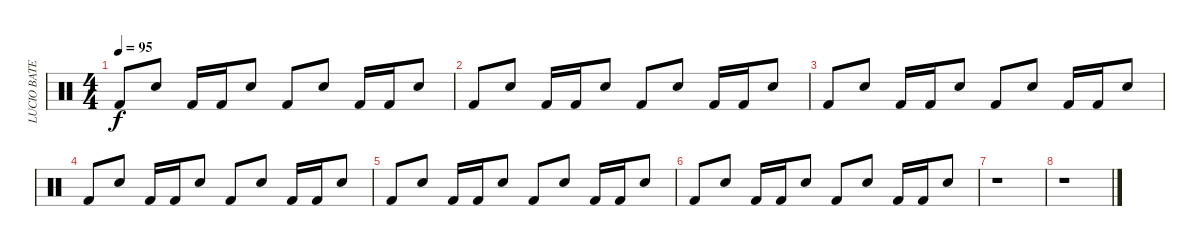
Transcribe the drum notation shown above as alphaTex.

\track ("LUCIO BATERIA" "LUCIO BATE") {instrument percussion}
\staff {score}
\articulation defaults
\ts (4 4)
\tempo 95
\clef neutral
\ks c "Kick (hit) 2".8{dy f} "Electric Snare (hit)".8 "Kick (hit) 2".16 "Kick (hit) 2".16 "Electric Snare (hit)".8 "Kick (hit) 2".8 "Electric Snare (hit)".8 "Kick (hit) 2".16 "Kick (hit) 2".16 "Electric Snare (hit)".8
|
"Kick (hit) 2".8 "Electric Snare (hit)".8 "Kick (hit) 2".16 "Kick (hit) 2".16 "Electric Snare (hit)".8 "Kick (hit) 2".8 "Electric Snare (hit)".8 "Kick (hit) 2".16 "Kick (hit) 2".16 "Electric Snare (hit)".8 |
"Kick (hit) 2".8 "Electric Snare (hit)".8 "Kick (hit) 2".16 "Kick (hit) 2".16 "Electric Snare (hit)".8 "Kick (hit) 2".8 "Electric Snare (hit)".8 "Kick (hit) 2".16 "Kick (hit) 2".16 "Electric Snare (hit)".8 |
"Kick (hit) 2".8 "Electric Snare (hit)".8 "Kick (hit) 2".16 "Kick (hit) 2".16 "Electric Snare (hit)".8 "Kick (hit) 2".8 "Electric Snare (hit)".8 "Kick (hit) 2".16 "Kick (hit) 2".16 "Electric Snare (hit)".8 |
"Kick (hit) 2".8 "Electric Snare (hit)".8 "Kick (hit) 2".16 "Kick (hit) 2".16 "Electric Snare (hit)".8 "Kick (hit) 2".8 "Electric Snare (hit)".8 "Kick (hit) 2".16 "Kick (hit) 2".16 "Electric Snare (hit)".8 |
"Kick (hit) 2".8 "Electric Snare (hit)".8 "Kick (hit) 2".16 "Kick (hit) 2".16 "Electric Snare (hit)".8 "Kick (hit) 2".8 "Electric Snare (hit)".8 "Kick (hit) 2".16 "Kick (hit) 2".16 "Electric Snare (hit)".8 |
r.1 |
r.1
